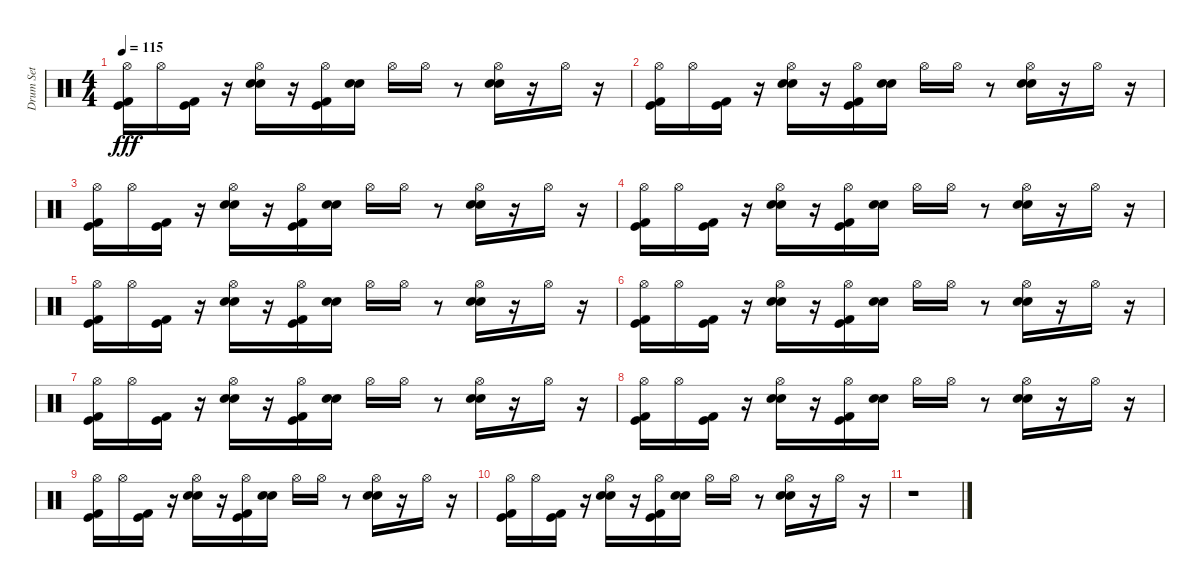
\track ("Drum Set" "Drum Set") {instrument percussion}
\staff {score}
\articulation defaults
\ts (4 4)
\tempo 115
\clef neutral
\ks c
("Hi-Hat (open)" "Kick (hit)" "Kick (hit) 2").16{dy fff} "Hi-Hat (open)".16 ("Kick (hit)" "Kick (hit) 2").16 r.16 ("Hi-Hat (open)" "Electric Snare (hit)" "Snare (hit) 2").16 r.16 ("Hi-Hat (open)" "Kick (hit) 2" "Kick (hit)").16 ("Electric Snare (hit)" "Snare (hit) 2").16 "Hi-Hat (open)".16 "Hi-Hat (open)".16 r.8 ("Hi-Hat (open)" "Electric Snare (hit)" "Snare (hit) 2").16 r.16 "Hi-Hat (open)".16 r.16 |
("Hi-Hat (open)" "Kick (hit)" "Kick (hit) 2").16 "Hi-Hat (open)".16 ("Kick (hit)" "Kick (hit) 2").16 r.16 ("Hi-Hat (open)" "Electric Snare (hit)" "Snare (hit) 2").16 r.16 ("Hi-Hat (open)" "Kick (hit) 2" "Kick (hit)").16 ("Electric Snare (hit)" "Snare (hit) 2").16 "Hi-Hat (open)".16 "Hi-Hat (open)".16 r.8 ("Hi-Hat (open)" "Electric Snare (hit)" "Snare (hit) 2").16 r.16 "Hi-Hat (open)".16 r.16 |
("Hi-Hat (open)" "Kick (hit)" "Kick (hit) 2").16 "Hi-Hat (open)".16 ("Kick (hit)" "Kick (hit) 2").16 r.16 ("Hi-Hat (open)" "Electric Snare (hit)" "Snare (hit) 2").16 r.16 ("Hi-Hat (open)" "Kick (hit) 2" "Kick (hit)").16 ("Electric Snare (hit)" "Snare (hit) 2").16 "Hi-Hat (open)".16 "Hi-Hat (open)".16 r.8 ("Hi-Hat (open)" "Electric Snare (hit)" "Snare (hit) 2").16 r.16 "Hi-Hat (open)".16 r.16 |
("Hi-Hat (open)" "Kick (hit)" "Kick (hit) 2").16 "Hi-Hat (open)".16 ("Kick (hit)" "Kick (hit) 2").16 r.16 ("Hi-Hat (open)" "Electric Snare (hit)" "Snare (hit) 2").16 r.16 ("Hi-Hat (open)" "Kick (hit) 2" "Kick (hit)").16 ("Electric Snare (hit)" "Snare (hit) 2").16 "Hi-Hat (open)".16 "Hi-Hat (open)".16 r.8 ("Hi-Hat (open)" "Electric Snare (hit)" "Snare (hit) 2").16 r.16 "Hi-Hat (open)".16 r.16 |
("Hi-Hat (open)" "Kick (hit)" "Kick (hit) 2").16 "Hi-Hat (open)".16 ("Kick (hit)" "Kick (hit) 2").16 r.16 ("Hi-Hat (open)" "Electric Snare (hit)" "Snare (hit) 2").16 r.16 ("Hi-Hat (open)" "Kick (hit) 2" "Kick (hit)").16 ("Electric Snare (hit)" "Snare (hit) 2").16 "Hi-Hat (open)".16 "Hi-Hat (open)".16 r.8 ("Hi-Hat (open)" "Electric Snare (hit)" "Snare (hit) 2").16 r.16 "Hi-Hat (open)".16 r.16 |
("Hi-Hat (open)" "Kick (hit)" "Kick (hit) 2").16 "Hi-Hat (open)".16 ("Kick (hit)" "Kick (hit) 2").16 r.16 ("Hi-Hat (open)" "Electric Snare (hit)" "Snare (hit) 2").16 r.16 ("Hi-Hat (open)" "Kick (hit) 2" "Kick (hit)").16 ("Electric Snare (hit)" "Snare (hit) 2").16 "Hi-Hat (open)".16 "Hi-Hat (open)".16 r.8 ("Hi-Hat (open)" "Electric Snare (hit)" "Snare (hit) 2").16 r.16 "Hi-Hat (open)".16 r.16 |
("Hi-Hat (open)" "Kick (hit)" "Kick (hit) 2").16 "Hi-Hat (open)".16 ("Kick (hit)" "Kick (hit) 2").16 r.16 ("Hi-Hat (open)" "Electric Snare (hit)" "Snare (hit) 2").16 r.16 ("Hi-Hat (open)" "Kick (hit) 2" "Kick (hit)").16 ("Electric Snare (hit)" "Snare (hit) 2").16 "Hi-Hat (open)".16 "Hi-Hat (open)".16 r.8 ("Hi-Hat (open)" "Electric Snare (hit)" "Snare (hit) 2").16 r.16 "Hi-Hat (open)".16 r.16 |
("Hi-Hat (open)" "Kick (hit)" "Kick (hit) 2").16 "Hi-Hat (open)".16 ("Kick (hit)" "Kick (hit) 2").16 r.16 ("Hi-Hat (open)" "Electric Snare (hit)" "Snare (hit) 2").16 r.16 ("Hi-Hat (open)" "Kick (hit) 2" "Kick (hit)").16 ("Electric Snare (hit)" "Snare (hit) 2").16 "Hi-Hat (open)".16 "Hi-Hat (open)".16 r.8 ("Hi-Hat (open)" "Electric Snare (hit)" "Snare (hit) 2").16 r.16 "Hi-Hat (open)".16 r.16 |
("Hi-Hat (open)" "Kick (hit)" "Kick (hit) 2").16 "Hi-Hat (open)".16 ("Kick (hit)" "Kick (hit) 2").16 r.16 ("Hi-Hat (open)" "Electric Snare (hit)" "Snare (hit) 2").16 r.16 ("Hi-Hat (open)" "Kick (hit) 2" "Kick (hit)").16 ("Electric Snare (hit)" "Snare (hit) 2").16 "Hi-Hat (open)".16 "Hi-Hat (open)".16 r.8 ("Hi-Hat (open)" "Electric Snare (hit)" "Snare (hit) 2").16 r.16 "Hi-Hat (open)".16 r.16 |
("Hi-Hat (open)" "Kick (hit)" "Kick (hit) 2").16 "Hi-Hat (open)".16 ("Kick (hit)" "Kick (hit) 2").16 r.16 ("Hi-Hat (open)" "Electric Snare (hit)" "Snare (hit) 2").16 r.16 ("Hi-Hat (open)" "Kick (hit) 2" "Kick (hit)").16 ("Electric Snare (hit)" "Snare (hit) 2").16 "Hi-Hat (open)".16 "Hi-Hat (open)".16 r.8 ("Hi-Hat (open)" "Electric Snare (hit)" "Snare (hit) 2").16 r.16 "Hi-Hat (open)".16 r.16 |
r.1
